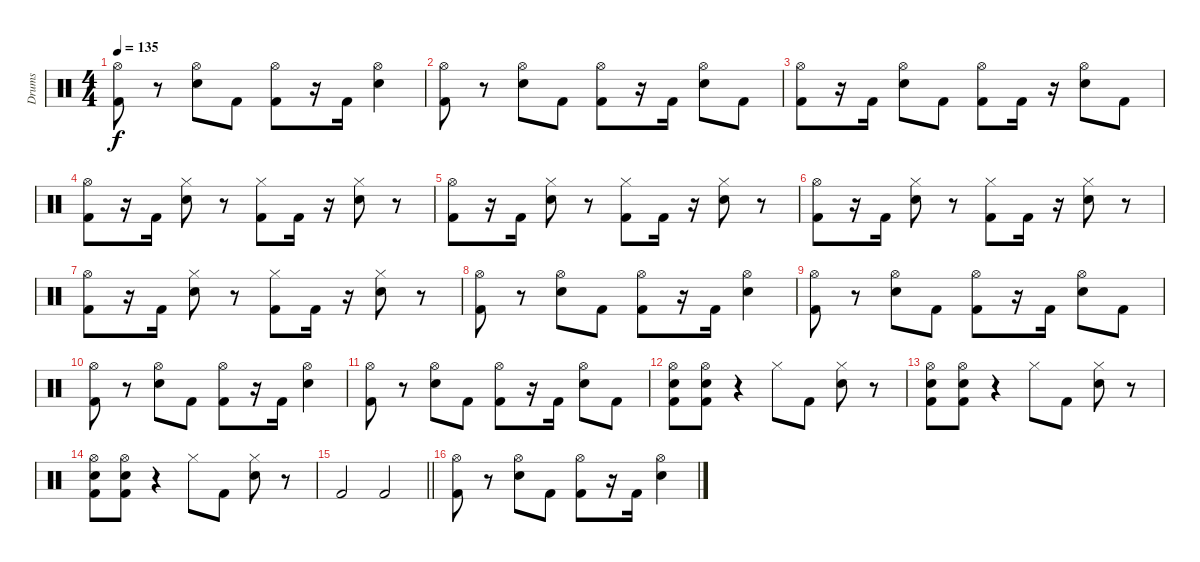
\track ("Drums" "Drums") {instrument percussion}
\staff {score}
\articulation defaults
\ts (4 4)
\tempo 135
\clef neutral
\ks c
("Hi-Hat (open)" "Kick (hit) 2").8{dy f} r.8 ("Hi-Hat (open)" "Snare (hit) 2").8 "Kick (hit) 2".8 ("Hi-Hat (open)" "Kick (hit) 2").8 r.16 "Kick (hit) 2".16 ("Hi-Hat (open)" "Snare (hit) 2").4 |
("Hi-Hat (open)" "Kick (hit) 2").8 r.8 ("Hi-Hat (open)" "Snare (hit) 2").8 "Kick (hit) 2".8 ("Hi-Hat (open)" "Kick (hit) 2").8 r.16 "Kick (hit) 2".16 ("Hi-Hat (open)" "Snare (hit) 2").8 "Kick (hit) 2".8 |
("Hi-Hat (open)" "Kick (hit) 2").8 r.16 "Kick (hit) 2".16 ("Hi-Hat (open)" "Snare (hit) 2").8 "Kick (hit) 2".8 ("Hi-Hat (open)" "Kick (hit) 2").8 "Kick (hit) 2".16 r.16 ("Hi-Hat (open)" "Snare (hit) 2").8 "Kick (hit) 2".8 |
("Hi-Hat (open)" "Kick (hit) 2").8 r.16 "Kick (hit) 2".16 ("Hi-Hat (closed)" "Snare (hit) 2").8 r.8 ("Hi-Hat (closed)" "Kick (hit) 2").8 "Kick (hit) 2".16 r.16 ("Hi-Hat (closed)" "Snare (hit) 2").8 r.8 |
("Hi-Hat (open)" "Kick (hit) 2").8 r.16 "Kick (hit) 2".16 ("Hi-Hat (closed)" "Snare (hit) 2").8 r.8 ("Hi-Hat (closed)" "Kick (hit) 2").8 "Kick (hit) 2".16 r.16 ("Hi-Hat (closed)" "Snare (hit) 2").8 r.8 |
("Hi-Hat (open)" "Kick (hit) 2").8 r.16 "Kick (hit) 2".16 ("Hi-Hat (closed)" "Snare (hit) 2").8 r.8 ("Hi-Hat (closed)" "Kick (hit) 2").8 "Kick (hit) 2".16 r.16 ("Hi-Hat (closed)" "Snare (hit) 2").8 r.8 |
("Hi-Hat (open)" "Kick (hit) 2").8 r.16 "Kick (hit) 2".16 ("Hi-Hat (closed)" "Snare (hit) 2").8 r.8 ("Hi-Hat (closed)" "Kick (hit) 2").8 "Kick (hit) 2".16 r.16 ("Hi-Hat (closed)" "Snare (hit) 2").8 r.8 |
("Hi-Hat (open)" "Kick (hit) 2").8 r.8 ("Hi-Hat (open)" "Snare (hit) 2").8 "Kick (hit) 2".8 ("Hi-Hat (open)" "Kick (hit) 2").8 r.16 "Kick (hit) 2".16 ("Hi-Hat (open)" "Snare (hit) 2").4 |
("Hi-Hat (open)" "Kick (hit) 2").8 r.8 ("Hi-Hat (open)" "Snare (hit) 2").8 "Kick (hit) 2".8 ("Hi-Hat (open)" "Kick (hit) 2").8 r.16 "Kick (hit) 2".16 ("Hi-Hat (open)" "Snare (hit) 2").8 "Kick (hit) 2".8 |
("Hi-Hat (open)" "Kick (hit) 2").8 r.8 ("Hi-Hat (open)" "Snare (hit) 2").8 "Kick (hit) 2".8 ("Hi-Hat (open)" "Kick (hit) 2").8 r.16 "Kick (hit) 2".16 ("Hi-Hat (open)" "Snare (hit) 2").4 |
("Hi-Hat (open)" "Kick (hit) 2").8 r.8 ("Hi-Hat (open)" "Snare (hit) 2").8 "Kick (hit) 2".8 ("Hi-Hat (open)" "Kick (hit) 2").8 r.16 "Kick (hit) 2".16 ("Hi-Hat (open)" "Snare (hit) 2").8 "Kick (hit) 2".8 |
("Hi-Hat (open)" "Snare (hit) 2" "Kick (hit) 2").8 ("Hi-Hat (open)" "Snare (hit) 2" "Kick (hit) 2").8 r.4 "Hi-Hat (closed)".8 "Kick (hit) 2".8 ("Hi-Hat (closed)" "Snare (hit) 2").8 r.8 |
("Hi-Hat (open)" "Snare (hit) 2" "Kick (hit) 2").8 ("Hi-Hat (open)" "Snare (hit) 2" "Kick (hit) 2").8 r.4 "Hi-Hat (closed)".8 "Kick (hit) 2".8 ("Hi-Hat (closed)" "Snare (hit) 2").8 r.8 |
("Hi-Hat (open)" "Snare (hit) 2" "Kick (hit) 2").8 ("Hi-Hat (open)" "Snare (hit) 2" "Kick (hit) 2").8 r.4 "Hi-Hat (closed)".8 "Kick (hit) 2".8 ("Hi-Hat (closed)" "Snare (hit) 2").8 r.8 |
\barLineRight lightlight "Kick (hit) 2".2 "Kick (hit) 2".2
|
("Hi-Hat (open)" "Kick (hit) 2").8 r.8 ("Hi-Hat (open)" "Snare (hit) 2").8 "Kick (hit) 2".8 ("Hi-Hat (open)" "Kick (hit) 2").8 r.16 "Kick (hit) 2".16 ("Hi-Hat (open)" "Snare (hit) 2").4
